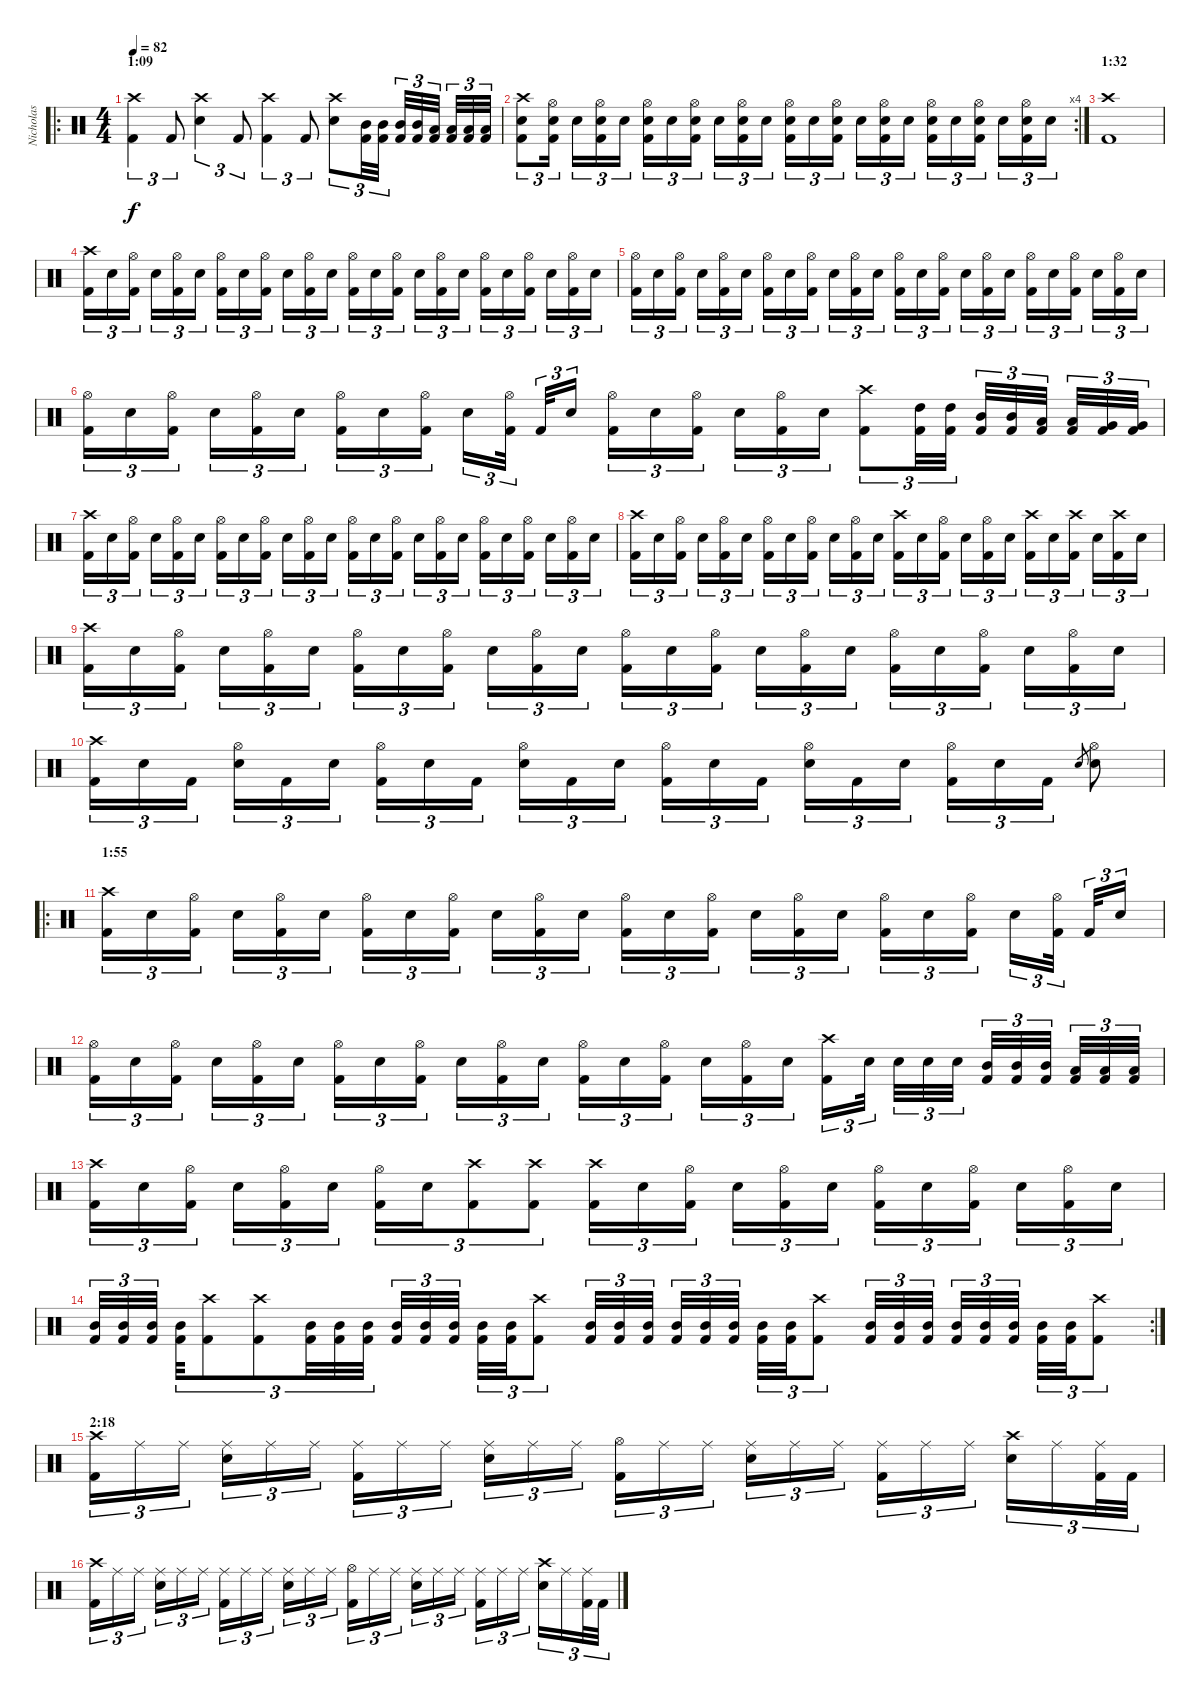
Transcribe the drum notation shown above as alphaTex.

\track ("Nicholas" "Nicholas") {instrument percussion}
\staff {score}
\articulation defaults
\ro
\ts (4 4)
\section ("" "1:09")
\tempo 82
\clef neutral
\ks c
("Kick (hit) 2" "Crash high (hit)").4{tu (3 2) dy f} "Kick (hit) 2".8{tu (3 2)} ("Snare (hit) 2" "Crash high (hit)").4{tu (3 2)} "Kick (hit) 2".8{tu (3 2)} ("Kick (hit) 2" "Crash high (hit)").4{tu (3 2)} "Kick (hit) 2".8{tu (3 2)} ("Snare (hit) 2" "Crash high (hit)").8{tu (3 2)} ("Kick (hit) 2" "Mid Tom (hit)").32{tu (3 2)} ("Kick (hit) 2" "Mid Tom (hit)").32{tu (3 2)} ("Kick (hit) 2" "Mid Tom (hit)").32{tu (3 2)} ("Kick (hit) 2" "Mid Tom (hit)").32{tu (3 2)} ("Kick (hit) 2" "Low Tom (hit)").32{tu (3 2)} ("Kick (hit) 2" "Low Tom (hit)").32{tu (3 2)} ("Kick (hit) 2" "Low Tom (hit)").32{tu (3 2)} ("Kick (hit) 2" "Low Tom (hit)").32{tu (3 2)} |
\rc 4
("Kick (hit) 2" "Snare (hit) 2" "Crash high (hit)").8{tu (3 2)} ("Kick (hit) 2" "Snare (hit) 2" "Hi-Hat (open)").16{tu (3 2)} "Snare (hit) 2".16{tu (3 2)} ("Kick (hit) 2" "Snare (hit) 2" "Hi-Hat (open)").16{tu (3 2)} "Snare (hit) 2".16{tu (3 2)} ("Kick (hit) 2" "Snare (hit) 2" "Hi-Hat (open)").16{tu (3 2)} "Snare (hit) 2".16{tu (3 2)} ("Kick (hit) 2" "Snare (hit) 2" "Hi-Hat (open)").16{tu (3 2)} "Snare (hit) 2".16{tu (3 2)} ("Kick (hit) 2" "Snare (hit) 2" "Hi-Hat (open)").16{tu (3 2)} "Snare (hit) 2".16{tu (3 2)} ("Kick (hit) 2" "Snare (hit) 2" "Hi-Hat (open)").16{tu (3 2)} "Snare (hit) 2".16{tu (3 2)} ("Kick (hit) 2" "Snare (hit) 2" "Hi-Hat (open)").16{tu (3 2)} "Snare (hit) 2".16{tu (3 2)} ("Kick (hit) 2" "Snare (hit) 2" "Hi-Hat (open)").16{tu (3 2)} "Snare (hit) 2".16{tu (3 2)} ("Kick (hit) 2" "Snare (hit) 2" "Hi-Hat (open)").16{tu (3 2)} "Snare (hit) 2".16{tu (3 2)} ("Kick (hit) 2" "Snare (hit) 2" "Hi-Hat (open)").16{tu (3 2)} "Snare (hit) 2".16{tu (3 2)} ("Kick (hit) 2" "Snare (hit) 2" "Hi-Hat (open)").16{tu (3 2)} "Snare (hit) 2".16{tu (3 2)} |
\section ("" "1:32")
("Kick (hit) 2" "Crash high (hit)").1 |
("Kick (hit) 2" "Crash high (hit)").16{tu (3 2)} "Snare (hit) 2".16{tu (3 2)} ("Kick (hit) 2" "Hi-Hat (open)").16{tu (3 2)} "Snare (hit) 2".16{tu (3 2)} ("Kick (hit) 2" "Hi-Hat (open)").16{tu (3 2)} "Snare (hit) 2".16{tu (3 2)} ("Kick (hit) 2" "Hi-Hat (open)").16{tu (3 2)} "Snare (hit) 2".16{tu (3 2)} ("Kick (hit) 2" "Hi-Hat (open)").16{tu (3 2)} "Snare (hit) 2".16{tu (3 2)} ("Kick (hit) 2" "Hi-Hat (open)").16{tu (3 2)} "Snare (hit) 2".16{tu (3 2)} ("Kick (hit) 2" "Hi-Hat (open)").16{tu (3 2)} "Snare (hit) 2".16{tu (3 2)} ("Kick (hit) 2" "Hi-Hat (open)").16{tu (3 2)} "Snare (hit) 2".16{tu (3 2)} ("Kick (hit) 2" "Hi-Hat (open)").16{tu (3 2)} "Snare (hit) 2".16{tu (3 2)} ("Kick (hit) 2" "Hi-Hat (open)").16{tu (3 2)} "Snare (hit) 2".16{tu (3 2)} ("Kick (hit) 2" "Hi-Hat (open)").16{tu (3 2)} "Snare (hit) 2".16{tu (3 2)} ("Kick (hit) 2" "Hi-Hat (open)").16{tu (3 2)} "Snare (hit) 2".16{tu (3 2)} |
("Kick (hit) 2" "Hi-Hat (open)").16{tu (3 2)} "Snare (hit) 2".16{tu (3 2)} ("Kick (hit) 2" "Hi-Hat (open)").16{tu (3 2)} "Snare (hit) 2".16{tu (3 2)} ("Kick (hit) 2" "Hi-Hat (open)").16{tu (3 2)} "Snare (hit) 2".16{tu (3 2)} ("Kick (hit) 2" "Hi-Hat (open)").16{tu (3 2)} "Snare (hit) 2".16{tu (3 2)} ("Kick (hit) 2" "Hi-Hat (open)").16{tu (3 2)} "Snare (hit) 2".16{tu (3 2)} ("Kick (hit) 2" "Hi-Hat (open)").16{tu (3 2)} "Snare (hit) 2".16{tu (3 2)} ("Kick (hit) 2" "Hi-Hat (open)").16{tu (3 2)} "Snare (hit) 2".16{tu (3 2)} ("Kick (hit) 2" "Hi-Hat (open)").16{tu (3 2)} "Snare (hit) 2".16{tu (3 2)} ("Kick (hit) 2" "Hi-Hat (open)").16{tu (3 2)} "Snare (hit) 2".16{tu (3 2)} ("Kick (hit) 2" "Hi-Hat (open)").16{tu (3 2)} "Snare (hit) 2".16{tu (3 2)} ("Kick (hit) 2" "Hi-Hat (open)").16{tu (3 2)} "Snare (hit) 2".16{tu (3 2)} ("Kick (hit) 2" "Hi-Hat (open)").16{tu (3 2)} "Snare (hit) 2".16{tu (3 2)} |
("Kick (hit) 2" "Hi-Hat (open)").16{tu (3 2)} "Snare (hit) 2".16{tu (3 2)} ("Kick (hit) 2" "Hi-Hat (open)").16{tu (3 2)} "Snare (hit) 2".16{tu (3 2)} ("Kick (hit) 2" "Hi-Hat (open)").16{tu (3 2)} "Snare (hit) 2".16{tu (3 2)} ("Kick (hit) 2" "Hi-Hat (open)").16{tu (3 2)} "Snare (hit) 2".16{tu (3 2)} ("Kick (hit) 2" "Hi-Hat (open)").16{tu (3 2)} "Snare (hit) 2".16{tu (3 2)} ("Kick (hit) 2" "Hi-Hat (open)").32{tu (3 2)} "Kick (hit) 2".32{tu (3 2)} "Snare (hit) 2".16{tu (3 2)} ("Kick (hit) 2" "Hi-Hat (open)").16{tu (3 2)} "Snare (hit) 2".16{tu (3 2)} ("Kick (hit) 2" "Hi-Hat (open)").16{tu (3 2)} "Snare (hit) 2".16{tu (3 2)} ("Kick (hit) 2" "Hi-Hat (open)").16{tu (3 2)} "Snare (hit) 2".16{tu (3 2)} ("Kick (hit) 2" "Crash high (hit)").8{tu (3 2)} ("Kick (hit) 2" "High Tom (hit)").32{tu (3 2)} ("Kick (hit) 2" "High Tom (hit)").32{tu (3 2)} ("Kick (hit) 2" "Mid Tom (hit)").32{tu (3 2)} ("Kick (hit) 2" "Mid Tom (hit)").32{tu (3 2)} ("Kick (hit) 2" "Low Tom (hit)").32{tu (3 2)} ("Kick (hit) 2" "Low Tom (hit)").32{tu (3 2)} ("Kick (hit) 2" "Very Low Tom (hit)").32{tu (3 2)} ("Kick (hit) 2" "Very Low Tom (hit)").32{tu (3 2)} |
("Kick (hit) 2" "Crash high (hit)").16{tu (3 2)} "Snare (hit) 2".16{tu (3 2)} ("Kick (hit) 2" "Hi-Hat (open)").16{tu (3 2)} "Snare (hit) 2".16{tu (3 2)} ("Kick (hit) 2" "Hi-Hat (open)").16{tu (3 2)} "Snare (hit) 2".16{tu (3 2)} ("Kick (hit) 2" "Hi-Hat (open)").16{tu (3 2)} "Snare (hit) 2".16{tu (3 2)} ("Kick (hit) 2" "Hi-Hat (open)").16{tu (3 2)} "Snare (hit) 2".16{tu (3 2)} ("Kick (hit) 2" "Hi-Hat (open)").16{tu (3 2)} "Snare (hit) 2".16{tu (3 2)} ("Kick (hit) 2" "Hi-Hat (open)").16{tu (3 2)} "Snare (hit) 2".16{tu (3 2)} ("Kick (hit) 2" "Hi-Hat (open)").16{tu (3 2)} "Snare (hit) 2".16{tu (3 2)} ("Kick (hit) 2" "Hi-Hat (open)").16{tu (3 2)} "Snare (hit) 2".16{tu (3 2)} ("Kick (hit) 2" "Hi-Hat (open)").16{tu (3 2)} "Snare (hit) 2".16{tu (3 2)} ("Kick (hit) 2" "Hi-Hat (open)").16{tu (3 2)} "Snare (hit) 2".16{tu (3 2)} ("Kick (hit) 2" "Hi-Hat (open)").16{tu (3 2)} "Snare (hit) 2".16{tu (3 2)} |
("Kick (hit) 2" "Crash high (hit)").16{tu (3 2)} "Snare (hit) 2".16{tu (3 2)} ("Kick (hit) 2" "Hi-Hat (open)").16{tu (3 2)} "Snare (hit) 2".16{tu (3 2)} ("Kick (hit) 2" "Hi-Hat (open)").16{tu (3 2)} "Snare (hit) 2".16{tu (3 2)} ("Kick (hit) 2" "Hi-Hat (open)").16{tu (3 2)} "Snare (hit) 2".16{tu (3 2)} ("Kick (hit) 2" "Hi-Hat (open)").16{tu (3 2)} "Snare (hit) 2".16{tu (3 2)} ("Kick (hit) 2" "Hi-Hat (open)").16{tu (3 2)} "Snare (hit) 2".16{tu (3 2)} ("Kick (hit) 2" "Crash high (hit)").16{tu (3 2)} "Snare (hit) 2".16{tu (3 2)} ("Kick (hit) 2" "Hi-Hat (open)").16{tu (3 2)} "Snare (hit) 2".16{tu (3 2)} ("Kick (hit) 2" "Hi-Hat (open)").16{tu (3 2)} "Snare (hit) 2".16{tu (3 2)} ("Kick (hit) 2" "Crash high (hit)").16{tu (3 2)} "Snare (hit) 2".16{tu (3 2)} ("Kick (hit) 2" "Crash high (hit)").16{tu (3 2)} "Snare (hit) 2".16{tu (3 2)} ("Kick (hit) 2" "Crash high (hit)").16{tu (3 2)} "Snare (hit) 2".16{tu (3 2)} |
("Kick (hit) 2" "Crash high (hit)").16{tu (3 2)} "Snare (hit) 2".16{tu (3 2)} ("Kick (hit) 2" "Hi-Hat (open)").16{tu (3 2)} "Snare (hit) 2".16{tu (3 2)} ("Kick (hit) 2" "Hi-Hat (open)").16{tu (3 2)} "Snare (hit) 2".16{tu (3 2)} ("Kick (hit) 2" "Hi-Hat (open)").16{tu (3 2)} "Snare (hit) 2".16{tu (3 2)} ("Kick (hit) 2" "Hi-Hat (open)").16{tu (3 2)} "Snare (hit) 2".16{tu (3 2)} ("Kick (hit) 2" "Hi-Hat (open)").16{tu (3 2)} "Snare (hit) 2".16{tu (3 2)} ("Kick (hit) 2" "Hi-Hat (open)").16{tu (3 2)} "Snare (hit) 2".16{tu (3 2)} ("Kick (hit) 2" "Hi-Hat (open)").16{tu (3 2)} "Snare (hit) 2".16{tu (3 2)} ("Kick (hit) 2" "Hi-Hat (open)").16{tu (3 2)} "Snare (hit) 2".16{tu (3 2)} ("Kick (hit) 2" "Hi-Hat (open)").16{tu (3 2)} "Snare (hit) 2".16{tu (3 2)} ("Kick (hit) 2" "Hi-Hat (open)").16{tu (3 2)} "Snare (hit) 2".16{tu (3 2)} ("Kick (hit) 2" "Hi-Hat (open)").16{tu (3 2)} "Snare (hit) 2".16{tu (3 2)} |
("Kick (hit) 2" "Crash high (hit)").16{tu (3 2)} "Snare (hit) 2".16{tu (3 2)} "Kick (hit) 2".16{tu (3 2)} ("Snare (hit) 2" "Hi-Hat (open)").16{tu (3 2)} "Kick (hit) 2".16{tu (3 2)} "Snare (hit) 2".16{tu (3 2)} ("Kick (hit) 2" "Hi-Hat (open)").16{tu (3 2)} "Snare (hit) 2".16{tu (3 2)} "Kick (hit) 2".16{tu (3 2)} ("Snare (hit) 2" "Hi-Hat (open)").16{tu (3 2)} "Kick (hit) 2".16{tu (3 2)} "Snare (hit) 2".16{tu (3 2)} ("Kick (hit) 2" "Hi-Hat (open)").16{tu (3 2)} "Snare (hit) 2".16{tu (3 2)} "Kick (hit) 2".16{tu (3 2)} ("Snare (hit) 2" "Hi-Hat (open)").16{tu (3 2)} "Kick (hit) 2".16{tu (3 2)} "Snare (hit) 2".16{tu (3 2)} ("Kick (hit) 2" "Hi-Hat (open)").16{tu (3 2)} "Snare (hit) 2".16{tu (3 2)} "Kick (hit) 2".16{tu (3 2)} "Snare (hit) 2".8{gr} ("Snare (hit) 2" "Hi-Hat (open)").8 |
\ro
\section ("" "1:55")
("Kick (hit) 2" "Crash high (hit)").16{tu (3 2)} "Snare (hit) 2".16{tu (3 2)} ("Kick (hit) 2" "Hi-Hat (open)").16{tu (3 2)} "Snare (hit) 2".16{tu (3 2)} ("Kick (hit) 2" "Hi-Hat (open)").16{tu (3 2)} "Snare (hit) 2".16{tu (3 2)} ("Kick (hit) 2" "Hi-Hat (open)").16{tu (3 2)} "Snare (hit) 2".16{tu (3 2)} ("Kick (hit) 2" "Hi-Hat (open)").16{tu (3 2)} "Snare (hit) 2".16{tu (3 2)} ("Kick (hit) 2" "Hi-Hat (open)").16{tu (3 2)} "Snare (hit) 2".16{tu (3 2)} ("Kick (hit) 2" "Hi-Hat (open)").16{tu (3 2)} "Snare (hit) 2".16{tu (3 2)} ("Kick (hit) 2" "Hi-Hat (open)").16{tu (3 2)} "Snare (hit) 2".16{tu (3 2)} ("Kick (hit) 2" "Hi-Hat (open)").16{tu (3 2)} "Snare (hit) 2".16{tu (3 2)} ("Kick (hit) 2" "Hi-Hat (open)").16{tu (3 2)} "Snare (hit) 2".16{tu (3 2)} ("Kick (hit) 2" "Hi-Hat (open)").16{tu (3 2)} "Snare (hit) 2".16{tu (3 2)} ("Kick (hit) 2" "Hi-Hat (open)").32{tu (3 2)} "Kick (hit) 2".32{tu (3 2)} "Snare (hit) 2".16{tu (3 2)} |
("Kick (hit) 2" "Hi-Hat (open)").16{tu (3 2)} "Snare (hit) 2".16{tu (3 2)} ("Kick (hit) 2" "Hi-Hat (open)").16{tu (3 2)} "Snare (hit) 2".16{tu (3 2)} ("Kick (hit) 2" "Hi-Hat (open)").16{tu (3 2)} "Snare (hit) 2".16{tu (3 2)} ("Kick (hit) 2" "Hi-Hat (open)").16{tu (3 2)} "Snare (hit) 2".16{tu (3 2)} ("Kick (hit) 2" "Hi-Hat (open)").16{tu (3 2)} "Snare (hit) 2".16{tu (3 2)} ("Kick (hit) 2" "Hi-Hat (open)").16{tu (3 2)} "Snare (hit) 2".16{tu (3 2)} ("Kick (hit) 2" "Hi-Hat (open)").16{tu (3 2)} "Snare (hit) 2".16{tu (3 2)} ("Kick (hit) 2" "Hi-Hat (open)").16{tu (3 2)} "Snare (hit) 2".16{tu (3 2)} ("Kick (hit) 2" "Hi-Hat (open)").16{tu (3 2)} "Snare (hit) 2".16{tu (3 2)} ("Kick (hit) 2" "Crash high (hit)").16{tu (3 2)} "Snare (hit) 2".32{tu (3 2)} "Snare (hit) 2".32{tu (3 2)} "Snare (hit) 2".32{tu (3 2)} "Snare (hit) 2".32{tu (3 2)} ("Kick (hit) 2" "Mid Tom (hit)").32{tu (3 2)} ("Kick (hit) 2" "Mid Tom (hit)").32{tu (3 2)} ("Kick (hit) 2" "Mid Tom (hit)").32{tu (3 2)} ("Kick (hit) 2" "Low Tom (hit)").32{tu (3 2)} ("Kick (hit) 2" "Low Tom (hit)").32{tu (3 2)} ("Kick (hit) 2" "Low Tom (hit)").32{tu (3 2)} |
("Kick (hit) 2" "Crash high (hit)").16{tu (3 2)} "Snare (hit) 2".16{tu (3 2)} ("Kick (hit) 2" "Hi-Hat (open)").16{tu (3 2)} "Snare (hit) 2".16{tu (3 2)} ("Kick (hit) 2" "Hi-Hat (open)").16{tu (3 2)} "Snare (hit) 2".16{tu (3 2)} ("Kick (hit) 2" "Hi-Hat (open)").16{tu (3 2)} "Snare (hit) 2".16{tu (3 2)} ("Kick (hit) 2" "Crash high (hit)").8{tu (3 2)} ("Kick (hit) 2" "Crash high (hit)").8{tu (3 2)} ("Kick (hit) 2" "Crash high (hit)").16{tu (3 2)} "Snare (hit) 2".16{tu (3 2)} ("Kick (hit) 2" "Hi-Hat (open)").16{tu (3 2)} "Snare (hit) 2".16{tu (3 2)} ("Kick (hit) 2" "Hi-Hat (open)").16{tu (3 2)} "Snare (hit) 2".16{tu (3 2)} ("Kick (hit) 2" "Hi-Hat (open)").16{tu (3 2)} "Snare (hit) 2".16{tu (3 2)} ("Kick (hit) 2" "Hi-Hat (open)").16{tu (3 2)} "Snare (hit) 2".16{tu (3 2)} ("Kick (hit) 2" "Hi-Hat (open)").16{tu (3 2)} "Snare (hit) 2".16{tu (3 2)} |
\rc 2
("Kick (hit) 2" "Mid Tom (hit)").32{tu (3 2)} ("Kick (hit) 2" "Mid Tom (hit)").32{tu (3 2)} ("Kick (hit) 2" "Mid Tom (hit)").32{tu (3 2)} ("Kick (hit) 2" "Mid Tom (hit)").32{tu (3 2)} ("Kick (hit) 2" "Crash high (hit)").8{tu (3 2)} ("Kick (hit) 2" "Crash high (hit)").8{tu (3 2)} ("Kick (hit) 2" "Mid Tom (hit)").32{tu (3 2)} ("Kick (hit) 2" "Mid Tom (hit)").32{tu (3 2)} ("Kick (hit) 2" "Mid Tom (hit)").32{tu (3 2)} ("Kick (hit) 2" "Mid Tom (hit)").32{tu (3 2)} ("Kick (hit) 2" "Mid Tom (hit)").32{tu (3 2)} ("Kick (hit) 2" "Mid Tom (hit)").32{tu (3 2)} ("Kick (hit) 2" "Mid Tom (hit)").32{tu (3 2)} ("Kick (hit) 2" "Mid Tom (hit)").32{tu (3 2)} ("Kick (hit) 2" "Crash high (hit)").8{tu (3 2)} ("Kick (hit) 2" "Mid Tom (hit)").32{tu (3 2)} ("Kick (hit) 2" "Mid Tom (hit)").32{tu (3 2)} ("Kick (hit) 2" "Mid Tom (hit)").32{tu (3 2)} ("Kick (hit) 2" "Mid Tom (hit)").32{tu (3 2)} ("Kick (hit) 2" "Mid Tom (hit)").32{tu (3 2)} ("Kick (hit) 2" "Mid Tom (hit)").32{tu (3 2)} ("Kick (hit) 2" "Mid Tom (hit)").32{tu (3 2)} ("Kick (hit) 2" "Mid Tom (hit)").32{tu (3 2)} ("Kick (hit) 2" "Crash high (hit)").8{tu (3 2)} ("Kick (hit) 2" "Mid Tom (hit)").32{tu (3 2)} ("Kick (hit) 2" "Mid Tom (hit)").32{tu (3 2)} ("Kick (hit) 2" "Mid Tom (hit)").32{tu (3 2)} ("Kick (hit) 2" "Mid Tom (hit)").32{tu (3 2)} ("Kick (hit) 2" "Mid Tom (hit)").32{tu (3 2)} ("Kick (hit) 2" "Mid Tom (hit)").32{tu (3 2)} ("Kick (hit) 2" "Mid Tom (hit)").32{tu (3 2)} ("Kick (hit) 2" "Mid Tom (hit)").32{tu (3 2)} ("Kick (hit) 2" "Crash high (hit)").8{tu (3 2)} |
\section ("" "2:18")
("Kick (hit) 2" "Crash high (hit)").16{tu (3 2)} "Ride (middle)".16{tu (3 2)} "Ride (middle)".16{tu (3 2)} ("Snare (hit) 2" "Ride (middle)").16{tu (3 2)} "Ride (middle)".16{tu (3 2)} "Ride (middle)".16{tu (3 2)} ("Kick (hit) 2" "Ride (middle)").16{tu (3 2)} "Ride (middle)".16{tu (3 2)} "Ride (middle)".16{tu (3 2)} ("Snare (hit) 2" "Ride (middle)").16{tu (3 2)} "Ride (middle)".16{tu (3 2)} "Ride (middle)".16{tu (3 2)} ("Kick (hit) 2" "Hi-Hat (open)").16{tu (3 2)} "Ride (middle)".16{tu (3 2)} "Ride (middle)".16{tu (3 2)} ("Snare (hit) 2" "Ride (middle)").16{tu (3 2)} "Ride (middle)".16{tu (3 2)} "Ride (middle)".16{tu (3 2)} ("Kick (hit) 2" "Ride (middle)").16{tu (3 2)} "Ride (middle)".16{tu (3 2)} "Ride (middle)".16{tu (3 2)} ("Snare (hit) 2" "Crash high (hit)").16{tu (3 2)} "Ride (middle)".16{tu (3 2)} ("Kick (hit) 2" "Ride (middle)").32{tu (3 2)} "Kick (hit) 2".32{tu (3 2)} |
("Kick (hit) 2" "Crash high (hit)").16{tu (3 2)} "Ride (middle)".16{tu (3 2)} "Ride (middle)".16{tu (3 2)} ("Snare (hit) 2" "Ride (middle)").16{tu (3 2)} "Ride (middle)".16{tu (3 2)} "Ride (middle)".16{tu (3 2)} ("Kick (hit) 2" "Ride (middle)").16{tu (3 2)} "Ride (middle)".16{tu (3 2)} "Ride (middle)".16{tu (3 2)} ("Snare (hit) 2" "Ride (middle)").16{tu (3 2)} "Ride (middle)".16{tu (3 2)} "Ride (middle)".16{tu (3 2)} ("Kick (hit) 2" "Hi-Hat (open)").16{tu (3 2)} "Ride (middle)".16{tu (3 2)} "Ride (middle)".16{tu (3 2)} ("Snare (hit) 2" "Ride (middle)").16{tu (3 2)} "Ride (middle)".16{tu (3 2)} "Ride (middle)".16{tu (3 2)} ("Kick (hit) 2" "Ride (middle)").16{tu (3 2)} "Ride (middle)".16{tu (3 2)} "Ride (middle)".16{tu (3 2)} ("Snare (hit) 2" "Crash high (hit)").16{tu (3 2)} "Ride (middle)".16{tu (3 2)} ("Kick (hit) 2" "Ride (middle)").32{tu (3 2)} "Kick (hit) 2".32{tu (3 2)}
